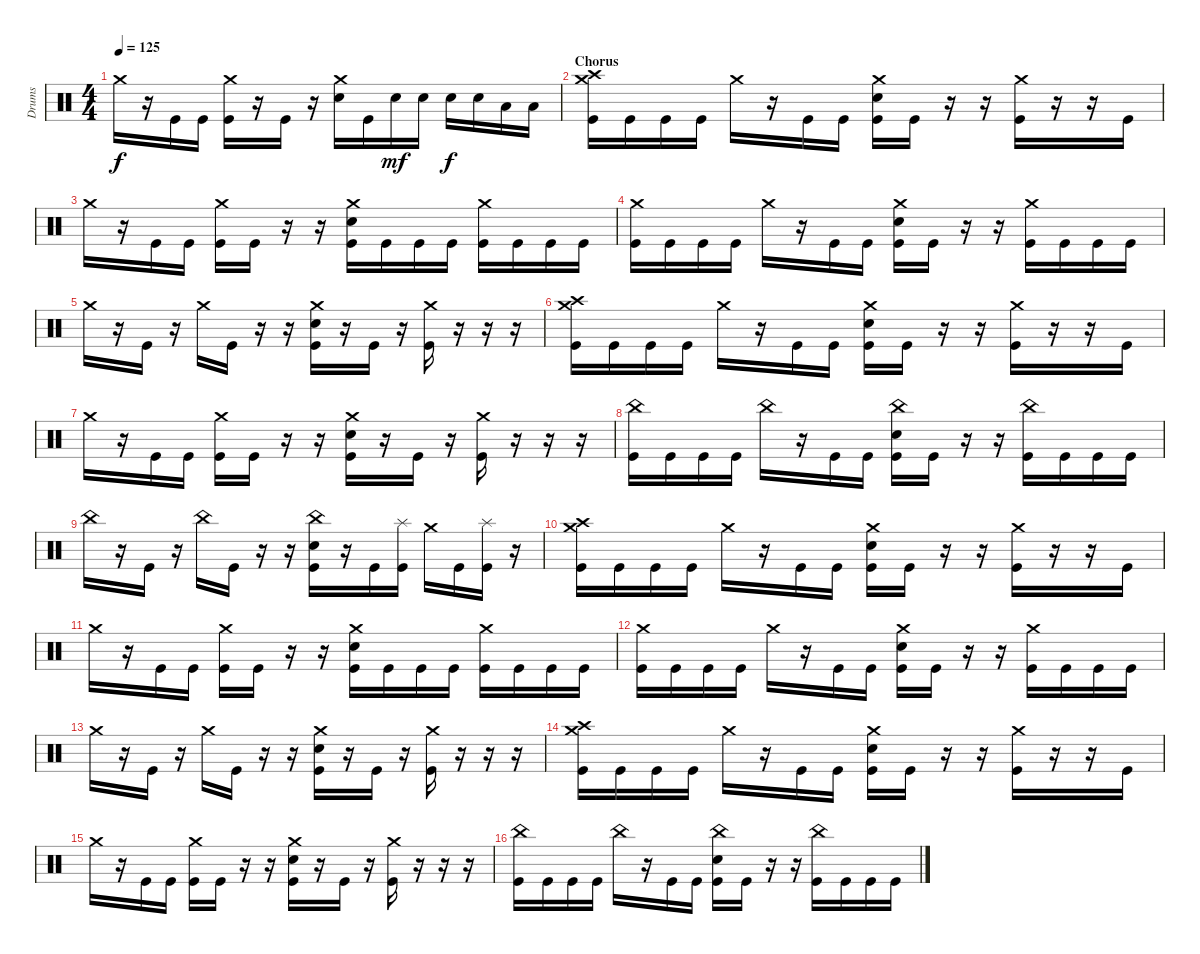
\track ("Drums" "Drums") {instrument percussion}
\staff {score}
\articulation defaults
\ts (4 4)
\tempo 125
\clef neutral
\ks c "Crash medium (hit)".16{dy f}
r.16 "Kick (hit)".16 "Kick (hit)".16 ("Kick (hit)" "Crash medium (hit)").16 r.16 "Kick (hit)".16 r.16 ("Snare (hit) 2" "Crash medium (hit)").16 "Kick (hit)".16 "Snare (hit) 2".16{dy mf} "Snare (hit) 2".16 "Snare (hit) 2".16{dy f} "Snare (hit) 2".16 "Low Tom (hit)".16 "Low Tom (hit)".16 |
\section ("" "Chorus")
("Kick (hit)" "Crash medium (hit)" "Crash high (hit)").16 "Kick (hit)".16 "Kick (hit)".16 "Kick (hit)".16 "Crash medium (hit)".16 r.16 "Kick (hit)".16 "Kick (hit)".16 ("Kick (hit)" "Crash medium (hit)" "Snare (hit) 2").16 "Kick (hit)".16 r.16 r.16 ("Kick (hit)" "Crash medium (hit)").16 r.16 r.16 "Kick (hit)".16 |
"Crash medium (hit)".16 r.16 "Kick (hit)".16 "Kick (hit)".16 ("Kick (hit)" "Crash medium (hit)").16 "Kick (hit)".16 r.16 r.16 ("Crash medium (hit)" "Snare (hit) 2" "Kick (hit)").16 "Kick (hit)".16 "Kick (hit)".16 "Kick (hit)".16 ("Crash medium (hit)" "Kick (hit)").16 "Kick (hit)".16 "Kick (hit)".16 "Kick (hit)".16 |
("Kick (hit)" "Crash medium (hit)").16 "Kick (hit)".16 "Kick (hit)".16 "Kick (hit)".16 "Crash medium (hit)".16 r.16 "Kick (hit)".16 "Kick (hit)".16 ("Kick (hit)" "Crash medium (hit)" "Snare (hit) 2").16 "Kick (hit)".16 r.16 r.16 ("Kick (hit)" "Crash medium (hit)").16 "Kick (hit)".16 "Kick (hit)".16 "Kick (hit)".16 |
"Crash medium (hit)".16 r.16 "Kick (hit)".16 r.16 "Crash medium (hit)".16 "Kick (hit)".16 r.16 r.16 ("Crash medium (hit)" "Snare (hit) 2" "Kick (hit)").16 r.16 "Kick (hit)".16 r.16 ("Crash medium (hit)" "Kick (hit)").16 r.16 r.16 r.16 |
("Kick (hit)" "Crash medium (hit)" "Crash high (hit)").16 "Kick (hit)".16 "Kick (hit)".16 "Kick (hit)".16 "Crash medium (hit)".16 r.16 "Kick (hit)".16 "Kick (hit)".16 ("Kick (hit)" "Crash medium (hit)" "Snare (hit) 2").16 "Kick (hit)".16 r.16 r.16 ("Kick (hit)" "Crash medium (hit)").16 r.16 r.16 "Kick (hit)".16 |
"Crash medium (hit)".16 r.16 "Kick (hit)".16 "Kick (hit)".16 ("Kick (hit)" "Crash medium (hit)").16 "Kick (hit)".16 r.16 r.16 ("Crash medium (hit)" "Snare (hit) 2" "Kick (hit)").16 r.16 "Kick (hit)".16 r.16 ("Crash medium (hit)" "Kick (hit)").16 r.16 r.16 r.16 |
("Kick (hit)" "China (hit)").16 "Kick (hit)".16 "Kick (hit)".16 "Kick (hit)".16 "China (hit)".16 r.16 "Kick (hit)".16 "Kick (hit)".16 ("Kick (hit)" "Snare (hit) 2" "China (hit)").16 "Kick (hit)".16 r.16 r.16 ("Kick (hit)" "China (hit)").16 "Kick (hit)".16 "Kick (hit)".16 "Kick (hit)".16 |
"China (hit)".16 r.16 "Kick (hit)".16 r.16 "China (hit)".16 "Kick (hit)".16 r.16 r.16 ("Kick (hit)" "Snare (hit) 2" "China (hit)").16 r.16 "Kick (hit)".16 ("Kick (hit)" "Splash (hit)").16 "Crash medium (hit)".16 "Kick (hit)".16 ("Kick (hit)" "Splash (hit)").16 r.16 |
("Kick (hit)" "Crash medium (hit)" "Crash high (hit)").16 "Kick (hit)".16 "Kick (hit)".16 "Kick (hit)".16 "Crash medium (hit)".16 r.16 "Kick (hit)".16 "Kick (hit)".16 ("Kick (hit)" "Crash medium (hit)" "Snare (hit) 2").16 "Kick (hit)".16 r.16 r.16 ("Kick (hit)" "Crash medium (hit)").16 r.16 r.16 "Kick (hit)".16 |
"Crash medium (hit)".16 r.16 "Kick (hit)".16 "Kick (hit)".16 ("Kick (hit)" "Crash medium (hit)").16 "Kick (hit)".16 r.16 r.16 ("Crash medium (hit)" "Snare (hit) 2" "Kick (hit)").16 "Kick (hit)".16 "Kick (hit)".16 "Kick (hit)".16 ("Crash medium (hit)" "Kick (hit)").16 "Kick (hit)".16 "Kick (hit)".16 "Kick (hit)".16 |
("Kick (hit)" "Crash medium (hit)").16 "Kick (hit)".16 "Kick (hit)".16 "Kick (hit)".16 "Crash medium (hit)".16 r.16 "Kick (hit)".16 "Kick (hit)".16 ("Kick (hit)" "Crash medium (hit)" "Snare (hit) 2").16 "Kick (hit)".16 r.16 r.16 ("Kick (hit)" "Crash medium (hit)").16 "Kick (hit)".16 "Kick (hit)".16 "Kick (hit)".16 |
"Crash medium (hit)".16 r.16 "Kick (hit)".16 r.16 "Crash medium (hit)".16 "Kick (hit)".16 r.16 r.16 ("Crash medium (hit)" "Snare (hit) 2" "Kick (hit)").16 r.16 "Kick (hit)".16 r.16 ("Crash medium (hit)" "Kick (hit)").16 r.16 r.16 r.16 |
("Kick (hit)" "Crash medium (hit)" "Crash high (hit)").16 "Kick (hit)".16 "Kick (hit)".16 "Kick (hit)".16 "Crash medium (hit)".16 r.16 "Kick (hit)".16 "Kick (hit)".16 ("Kick (hit)" "Crash medium (hit)" "Snare (hit) 2").16 "Kick (hit)".16 r.16 r.16 ("Kick (hit)" "Crash medium (hit)").16 r.16 r.16 "Kick (hit)".16 |
"Crash medium (hit)".16 r.16 "Kick (hit)".16 "Kick (hit)".16 ("Kick (hit)" "Crash medium (hit)").16 "Kick (hit)".16 r.16 r.16 ("Crash medium (hit)" "Snare (hit) 2" "Kick (hit)").16 r.16 "Kick (hit)".16 r.16 ("Crash medium (hit)" "Kick (hit)").16 r.16 r.16 r.16 |
("Kick (hit)" "China (hit)").16 "Kick (hit)".16 "Kick (hit)".16 "Kick (hit)".16 "China (hit)".16 r.16 "Kick (hit)".16 "Kick (hit)".16 ("Kick (hit)" "Snare (hit) 2" "China (hit)").16 "Kick (hit)".16 r.16 r.16 ("Kick (hit)" "China (hit)").16 "Kick (hit)".16 "Kick (hit)".16 "Kick (hit)".16
